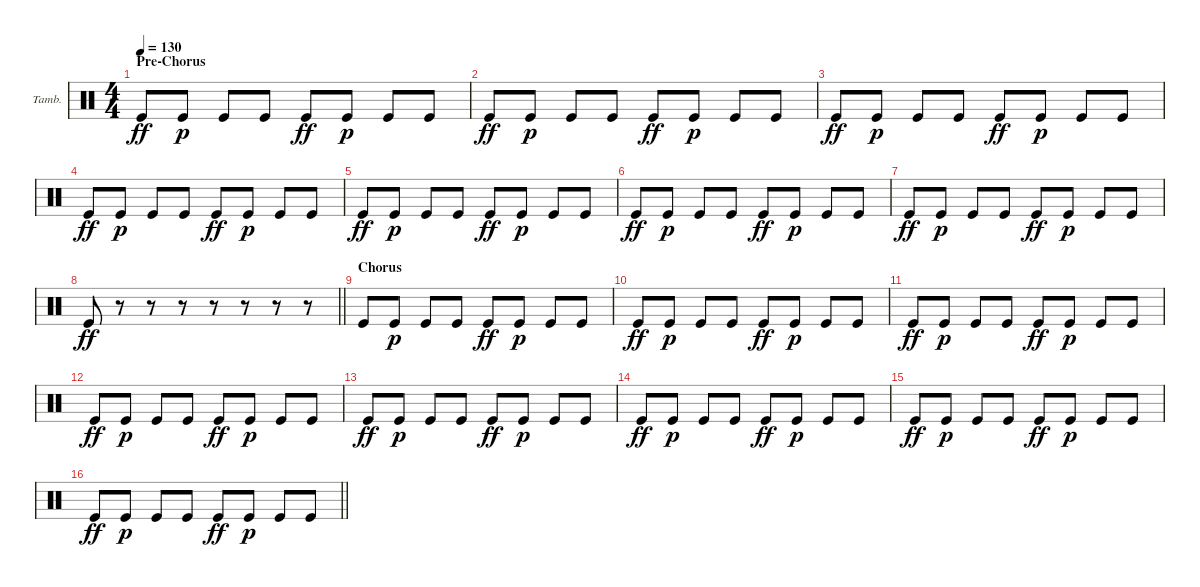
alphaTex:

\bracketExtendMode groupsimilarinstruments
\firstSystemTrackNameOrientation horizontal
\otherSystemsTrackNameOrientation horizontal
\track ("Tambourine" "Tamb.") {instrument percussion}
\staff {score}
\articulation defaults
\ts (4 4)
\section ("" "Pre-Chorus")
\tempo 130
\clef neutral
\ks c "Kick (hit)".8{dy ff} "Kick (hit)".8{dy p} "Kick (hit)".8 "Kick (hit)".8 "Kick (hit)".8{dy ff} "Kick (hit)".8{dy p} "Kick (hit)".8 "Kick (hit)".8
|
"Kick (hit)".8{dy ff} "Kick (hit)".8{dy p} "Kick (hit)".8 "Kick (hit)".8 "Kick (hit)".8{dy ff} "Kick (hit)".8{dy p} "Kick (hit)".8 "Kick (hit)".8 |
"Kick (hit)".8{dy ff} "Kick (hit)".8{dy p} "Kick (hit)".8 "Kick (hit)".8 "Kick (hit)".8{dy ff} "Kick (hit)".8{dy p} "Kick (hit)".8 "Kick (hit)".8 |
"Kick (hit)".8{dy ff} "Kick (hit)".8{dy p} "Kick (hit)".8 "Kick (hit)".8 "Kick (hit)".8{dy ff} "Kick (hit)".8{dy p} "Kick (hit)".8 "Kick (hit)".8 |
"Kick (hit)".8{dy ff} "Kick (hit)".8{dy p} "Kick (hit)".8 "Kick (hit)".8 "Kick (hit)".8{dy ff} "Kick (hit)".8{dy p} "Kick (hit)".8 "Kick (hit)".8 |
"Kick (hit)".8{dy ff} "Kick (hit)".8{dy p} "Kick (hit)".8 "Kick (hit)".8 "Kick (hit)".8{dy ff} "Kick (hit)".8{dy p} "Kick (hit)".8 "Kick (hit)".8 |
"Kick (hit)".8{dy ff} "Kick (hit)".8{dy p} "Kick (hit)".8 "Kick (hit)".8 "Kick (hit)".8{dy ff} "Kick (hit)".8{dy p} "Kick (hit)".8 "Kick (hit)".8 |
\barLineRight lightlight "Kick (hit)".8{dy ff}
r.8 r.8 r.8 r.8 r.8 r.8 r.8 |
\section ("" "Chorus")
"Kick (hit)".8 "Kick (hit)".8{dy p} "Kick (hit)".8 "Kick (hit)".8 "Kick (hit)".8{dy ff} "Kick (hit)".8{dy p} "Kick (hit)".8 "Kick (hit)".8 |
"Kick (hit)".8{dy ff} "Kick (hit)".8{dy p} "Kick (hit)".8 "Kick (hit)".8 "Kick (hit)".8{dy ff} "Kick (hit)".8{dy p} "Kick (hit)".8 "Kick (hit)".8 |
"Kick (hit)".8{dy ff} "Kick (hit)".8{dy p} "Kick (hit)".8 "Kick (hit)".8 "Kick (hit)".8{dy ff} "Kick (hit)".8{dy p} "Kick (hit)".8 "Kick (hit)".8 |
"Kick (hit)".8{dy ff} "Kick (hit)".8{dy p} "Kick (hit)".8 "Kick (hit)".8 "Kick (hit)".8{dy ff} "Kick (hit)".8{dy p} "Kick (hit)".8 "Kick (hit)".8 |
"Kick (hit)".8{dy ff} "Kick (hit)".8{dy p} "Kick (hit)".8 "Kick (hit)".8 "Kick (hit)".8{dy ff} "Kick (hit)".8{dy p} "Kick (hit)".8 "Kick (hit)".8 |
"Kick (hit)".8{dy ff} "Kick (hit)".8{dy p} "Kick (hit)".8 "Kick (hit)".8 "Kick (hit)".8{dy ff} "Kick (hit)".8{dy p} "Kick (hit)".8 "Kick (hit)".8 |
"Kick (hit)".8{dy ff} "Kick (hit)".8{dy p} "Kick (hit)".8 "Kick (hit)".8 "Kick (hit)".8{dy ff} "Kick (hit)".8{dy p} "Kick (hit)".8 "Kick (hit)".8 |
\barLineRight lightlight "Kick (hit)".8{dy ff} "Kick (hit)".8{dy p} "Kick (hit)".8 "Kick (hit)".8 "Kick (hit)".8{dy ff} "Kick (hit)".8{dy p} "Kick (hit)".8 "Kick (hit)".8
